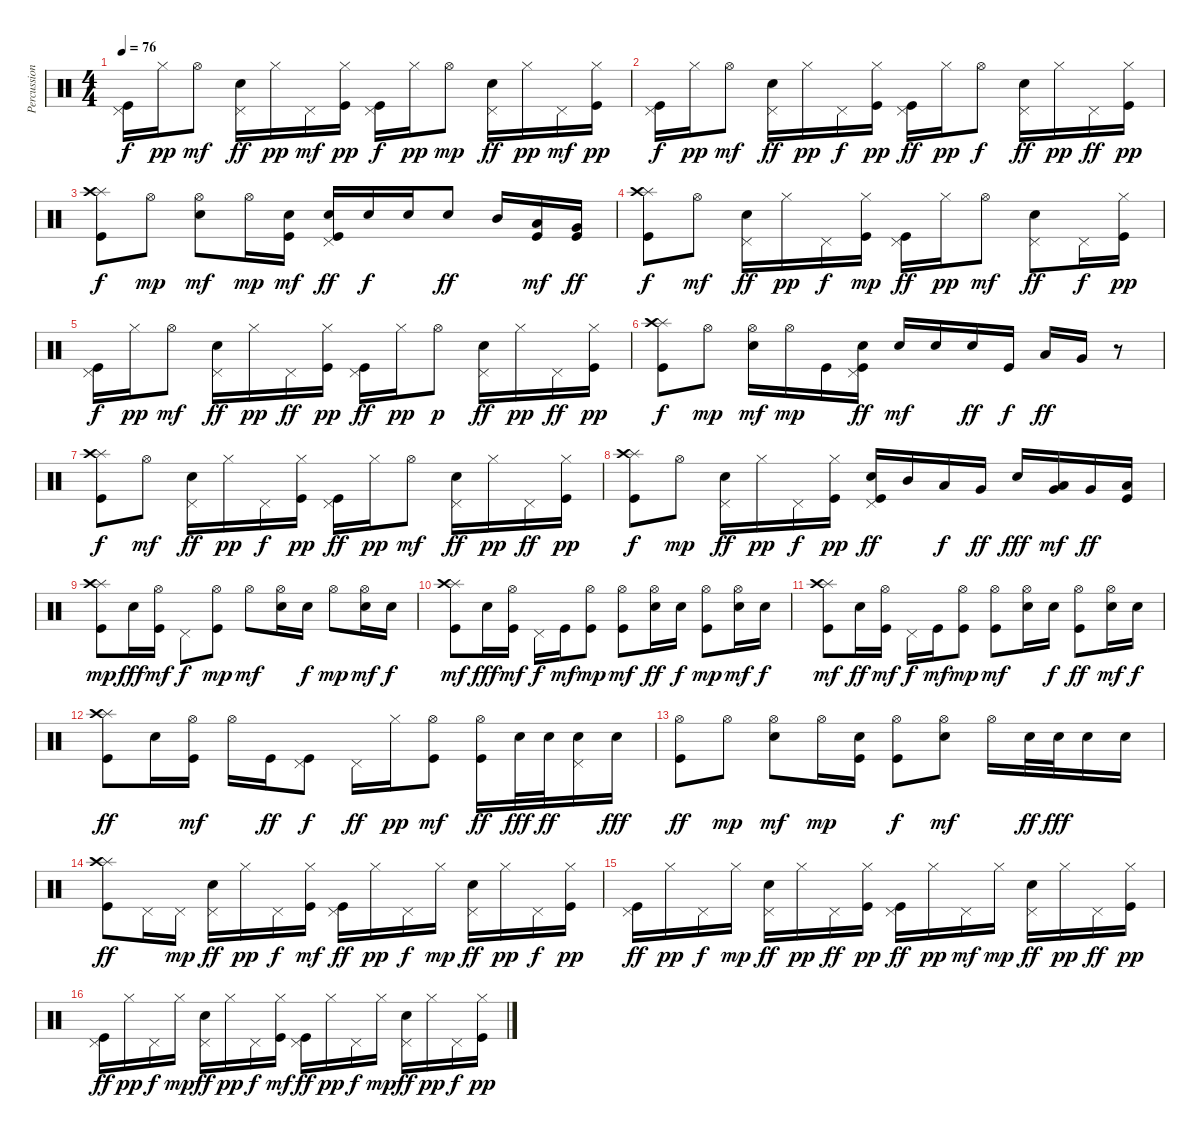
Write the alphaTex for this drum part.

\track ("Percussion" "Percussion") {instrument percussion}
\staff {score}
\articulation defaults
\ts (4 4)
\tempo 76
\clef neutral
\ks c
("Pedal Hi-Hat (hit)" "Kick (hit)").16{dy f} "Hi-Hat (closed)".16{dy pp} "Hi-Hat (open)".8{dy mf} ("Pedal Hi-Hat (hit)" "Snare (hit) 2").16{dy ff} "Hi-Hat (closed)".16{dy pp} "Pedal Hi-Hat (hit)".16{dy mf} ("Hi-Hat (closed)" "Kick (hit)").16{dy pp} ("Pedal Hi-Hat (hit)" "Kick (hit)").16{dy f} "Hi-Hat (closed)".16{dy pp} "Hi-Hat (open)".8{dy mp} ("Pedal Hi-Hat (hit)" "Snare (hit) 2").16{dy ff} "Hi-Hat (closed)".16{dy pp} "Pedal Hi-Hat (hit)".16{dy mf} ("Hi-Hat (closed)" "Kick (hit)").16{dy pp} |
("Pedal Hi-Hat (hit)" "Kick (hit)").16{dy f} "Hi-Hat (closed)".16{dy pp} "Hi-Hat (open)".8{dy mf} ("Pedal Hi-Hat (hit)" "Snare (hit) 2").16{dy ff} "Hi-Hat (closed)".16{dy pp} "Pedal Hi-Hat (hit)".16{dy f} ("Hi-Hat (closed)" "Kick (hit)").16{dy pp} ("Pedal Hi-Hat (hit)" "Kick (hit)").16{dy ff} "Hi-Hat (closed)".16{dy pp} "Hi-Hat (open)".8{dy f} ("Pedal Hi-Hat (hit)" "Snare (hit) 2").16{dy ff} "Hi-Hat (closed)".16{dy pp} "Pedal Hi-Hat (hit)".16{dy ff} ("Hi-Hat (closed)" "Kick (hit)").16{dy pp} |
("Splash (hit)" "Crash high (hit)" "Kick (hit)").8{dy f} "Hi-Hat (open)".8{dy mp} ("Hi-Hat (open)" "Snare (hit) 2").8{dy mf} "Hi-Hat (open)".16{dy mp} ("Snare (hit) 2" "Kick (hit)").16{dy mf} ("Pedal Hi-Hat (hit)" "Snare (hit) 2" "Kick (hit)").16{dy ff} "Snare (hit) 2".16{dy f} "Snare (hit) 2".16 "Snare (hit) 2".8{dy ff} "Mid Tom (hit)".16 ("Low Tom (hit)" "Kick (hit)").16{dy mf} ("Very Low Tom (hit)" "Kick (hit)").16{dy ff} |
("Splash (hit)" "Crash high (hit)" "Kick (hit)").8{dy f} "Hi-Hat (open)".8{dy mf} ("Pedal Hi-Hat (hit)" "Snare (hit) 2").16{dy ff} "Hi-Hat (closed)".16{dy pp} "Pedal Hi-Hat (hit)".16{dy f} ("Hi-Hat (closed)" "Kick (hit)").16{dy mp} ("Pedal Hi-Hat (hit)" "Kick (hit)").16{dy ff} "Hi-Hat (closed)".16{dy pp} "Hi-Hat (open)".8{dy mf} ("Pedal Hi-Hat (hit)" "Snare (hit) 2").8{dy ff} "Pedal Hi-Hat (hit)".16{dy f} ("Hi-Hat (closed)" "Kick (hit)").16{dy pp} |
("Pedal Hi-Hat (hit)" "Kick (hit)").16{dy f} "Hi-Hat (closed)".16{dy pp} "Hi-Hat (open)".8{dy mf} ("Pedal Hi-Hat (hit)" "Snare (hit) 2").16{dy ff} "Hi-Hat (closed)".16{dy pp} "Pedal Hi-Hat (hit)".16{dy ff} ("Hi-Hat (closed)" "Kick (hit)").16{dy pp} ("Pedal Hi-Hat (hit)" "Kick (hit)").16{dy ff} "Hi-Hat (closed)".16{dy pp} "Hi-Hat (open)".8{dy p} ("Pedal Hi-Hat (hit)" "Snare (hit) 2").16{dy ff} "Hi-Hat (closed)".16{dy pp} "Pedal Hi-Hat (hit)".16{dy ff} ("Hi-Hat (closed)" "Kick (hit)").16{dy pp} |
("Splash (hit)" "Crash high (hit)" "Kick (hit)").8{dy f} "Hi-Hat (open)".8{dy mp} ("Hi-Hat (open)" "Snare (hit) 2").16{dy mf} "Hi-Hat (open)".16{dy mp} "Kick (hit)".16 ("Pedal Hi-Hat (hit)" "Snare (hit) 2" "Kick (hit)").16{dy ff} "Snare (hit) 2".16{dy mf} "Snare (hit) 2".16 "Snare (hit) 2".16{dy ff} "Kick (hit)".16{dy f} "Low Tom (hit)".16{dy ff} "Very Low Tom (hit)".16 r.8 |
("Splash (hit)" "Crash high (hit)" "Kick (hit)").8{dy f} "Hi-Hat (open)".8{dy mf} ("Pedal Hi-Hat (hit)" "Snare (hit) 2").16{dy ff} "Hi-Hat (closed)".16{dy pp} "Pedal Hi-Hat (hit)".16{dy f} ("Hi-Hat (closed)" "Kick (hit)").16{dy pp} ("Pedal Hi-Hat (hit)" "Kick (hit)").16{dy ff} "Hi-Hat (closed)".16{dy pp} "Hi-Hat (open)".8{dy mf} ("Pedal Hi-Hat (hit)" "Snare (hit) 2").16{dy ff} "Hi-Hat (closed)".16{dy pp} "Pedal Hi-Hat (hit)".16{dy ff} ("Hi-Hat (closed)" "Kick (hit)").16{dy pp} |
("Splash (hit)" "Crash high (hit)" "Kick (hit)").8{dy f} "Hi-Hat (open)".8{dy mp} ("Pedal Hi-Hat (hit)" "Snare (hit) 2").16{dy ff} "Hi-Hat (closed)".16{dy pp} "Pedal Hi-Hat (hit)".16{dy f} ("Hi-Hat (closed)" "Kick (hit)").16{dy pp} ("Pedal Hi-Hat (hit)" "Snare (hit) 2" "Kick (hit)").16{dy ff} "Mid Tom (hit)".16 "Low Tom (hit)".16{dy f} "Very Low Tom (hit)".16{dy ff} "Snare (hit) 2".16{dy fff} ("Low Tom (hit)" "Very Low Tom (hit)").16{dy mf} "Very Low Tom (hit)".16{dy ff} ("Low Floor Tom (hit)" "Kick (hit)").16 |
("Splash (hit)" "Crash high (hit)" "Kick (hit)").8{dy mp} "Snare (hit) 2".16{dy fff} ("Hi-Hat (open)" "Kick (hit)").16{dy mf} "Pedal Hi-Hat (hit)".8{dy f} ("Hi-Hat (open)" "Kick (hit)").8{dy mp} "Hi-Hat (open)".8{dy mf} ("Hi-Hat (open)" "Snare (hit) 2").16 "Snare (hit) 2".16{dy f} "Hi-Hat (open)".8{dy mp} ("Hi-Hat (open)" "Snare (hit) 2").16{dy mf} "Snare (hit) 2".16{dy f} |
("Splash (hit)" "Crash high (hit)" "Kick (hit)").8{dy mf} "Snare (hit) 2".16{dy fff} ("Hi-Hat (open)" "Kick (hit)").16{dy mf} "Pedal Hi-Hat (hit)".16{dy f} "Kick (hit)".16{dy mf} ("Hi-Hat (open)" "Kick (hit)").8{dy mp} ("Hi-Hat (open)" "Kick (hit)").8{dy mf} ("Hi-Hat (open)" "Snare (hit) 2").16{dy ff} "Snare (hit) 2".16{dy f} ("Hi-Hat (open)" "Kick (hit)").8{dy mp} ("Hi-Hat (open)" "Snare (hit) 2").16{dy mf} "Snare (hit) 2".16{dy f} |
("Splash (hit)" "Crash high (hit)" "Kick (hit)").8{dy mf} "Snare (hit) 2".16{dy ff} ("Hi-Hat (open)" "Kick (hit)").16{dy mf} "Pedal Hi-Hat (hit)".16{dy f} "Kick (hit)".16{dy mf} ("Hi-Hat (open)" "Kick (hit)").8{dy mp} ("Hi-Hat (open)" "Kick (hit)").8{dy mf} ("Hi-Hat (open)" "Snare (hit) 2").16 "Snare (hit) 2".16{dy f} ("Hi-Hat (open)" "Kick (hit)").8{dy ff} ("Hi-Hat (open)" "Snare (hit) 2").16{dy mf} "Snare (hit) 2".16{dy f} |
("Splash (hit)" "Crash high (hit)" "Kick (hit)").8{dy ff} "Snare (hit) 2".16 ("Hi-Hat (open)" "Kick (hit)").16{dy mf} "Hi-Hat (open)".16 "Kick (hit)".16{dy ff} ("Pedal Hi-Hat (hit)" "Kick (hit)").8{dy f} "Pedal Hi-Hat (hit)".16{dy ff} "Hi-Hat (closed)".16{dy pp} ("Hi-Hat (open)" "Kick (hit)").8{dy mf} ("Hi-Hat (open)" "Kick (hit)").16{dy ff} "Snare (hit) 2".32{dy fff} "Snare (hit) 2".32{dy ff} ("Pedal Hi-Hat (hit)" "Snare (hit) 2").16 "Snare (hit) 2".16{dy fff} |
("Hi-Hat (open)" "Kick (hit)").8{dy ff} "Hi-Hat (open)".8{dy mp} ("Hi-Hat (open)" "Snare (hit) 2").8{dy mf} "Hi-Hat (open)".16{dy mp} ("Snare (hit) 2" "Kick (hit)").16 ("Hi-Hat (open)" "Kick (hit)").8{dy f} ("Hi-Hat (open)" "Snare (hit) 2").8{dy mf} "Hi-Hat (open)".16 "Snare (hit) 2".32{dy ff} "Snare (hit) 2".32{dy fff} "Snare (hit) 2".16 "Snare (hit) 2".16 |
("Splash (hit)" "Crash high (hit)" "Kick (hit)").8{dy ff} "Pedal Hi-Hat (hit)".16 "Pedal Hi-Hat (hit)".16{dy mp} ("Pedal Hi-Hat (hit)" "Snare (hit) 2").16{dy ff} "Hi-Hat (closed)".16{dy pp} "Pedal Hi-Hat (hit)".16{dy f} ("Hi-Hat (closed)" "Kick (hit)").16{dy mf} ("Pedal Hi-Hat (hit)" "Kick (hit)").16{dy ff} "Hi-Hat (closed)".16{dy pp} "Pedal Hi-Hat (hit)".16{dy f} "Hi-Hat (closed)".16{dy mp} ("Pedal Hi-Hat (hit)" "Snare (hit) 2").16{dy ff} "Hi-Hat (closed)".16{dy pp} "Pedal Hi-Hat (hit)".16{dy f} ("Hi-Hat (closed)" "Kick (hit)").16{dy pp} |
("Pedal Hi-Hat (hit)" "Kick (hit)").16{dy ff} "Hi-Hat (closed)".16{dy pp} "Pedal Hi-Hat (hit)".16{dy f} "Hi-Hat (closed)".16{dy mp} ("Pedal Hi-Hat (hit)" "Snare (hit) 2").16{dy ff} "Hi-Hat (closed)".16{dy pp} "Pedal Hi-Hat (hit)".16{dy ff} ("Hi-Hat (closed)" "Kick (hit)").16{dy pp} ("Pedal Hi-Hat (hit)" "Kick (hit)").16{dy ff} "Hi-Hat (closed)".16{dy pp} "Pedal Hi-Hat (hit)".16{dy mf} "Hi-Hat (closed)".16{dy mp} ("Pedal Hi-Hat (hit)" "Snare (hit) 2").16{dy ff} "Hi-Hat (closed)".16{dy pp} "Pedal Hi-Hat (hit)".16{dy ff} ("Hi-Hat (closed)" "Kick (hit)").16{dy pp} |
("Pedal Hi-Hat (hit)" "Kick (hit)").16{dy ff} "Hi-Hat (closed)".16{dy pp} "Pedal Hi-Hat (hit)".16{dy f} "Hi-Hat (closed)".16{dy mp} ("Pedal Hi-Hat (hit)" "Snare (hit) 2").16{dy ff} "Hi-Hat (closed)".16{dy pp} "Pedal Hi-Hat (hit)".16{dy f} ("Hi-Hat (closed)" "Kick (hit)").16{dy mf} ("Pedal Hi-Hat (hit)" "Kick (hit)").16{dy ff} "Hi-Hat (closed)".16{dy pp} "Pedal Hi-Hat (hit)".16{dy f} "Hi-Hat (closed)".16{dy mp} ("Pedal Hi-Hat (hit)" "Snare (hit) 2").16{dy ff} "Hi-Hat (closed)".16{dy pp} "Pedal Hi-Hat (hit)".16{dy f} ("Hi-Hat (closed)" "Kick (hit)").16{dy pp}
